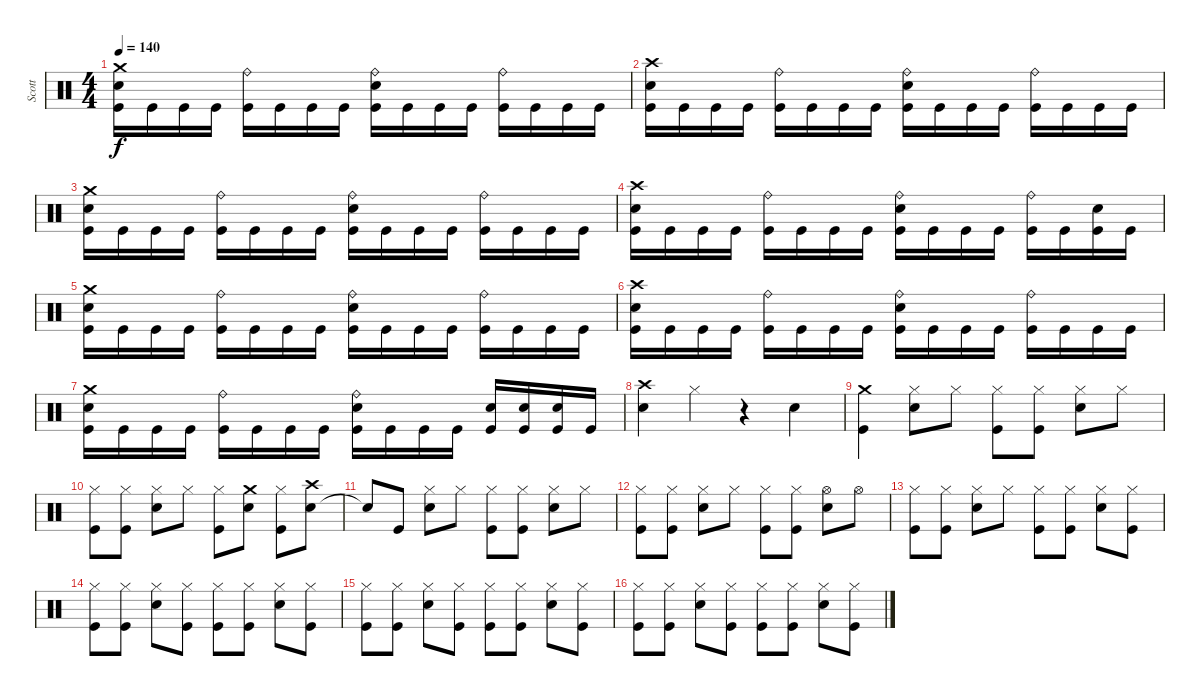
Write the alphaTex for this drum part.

\track ("Scott" "Scott") {instrument percussion}
\staff {score}
\articulation defaults
\ts (4 4)
\tempo 140
\clef neutral
\ks c
("Kick (hit)" "Snare (hit) 2" "Crash medium (hit)").16{dy f} "Kick (hit)".16 "Kick (hit)".16 "Kick (hit)".16 ("Kick (hit)" "Ride (bell)").16 "Kick (hit)".16 "Kick (hit)".16 "Kick (hit)".16 ("Kick (hit)" "Snare (hit) 2" "Ride (bell)").16 "Kick (hit)".16 "Kick (hit)".16 "Kick (hit)".16 ("Kick (hit)" "Ride (bell)").16 "Kick (hit)".16 "Kick (hit)".16 "Kick (hit)".16 |
("Kick (hit)" "Snare (hit) 2" "Crash high (hit)").16 "Kick (hit)".16 "Kick (hit)".16 "Kick (hit)".16 ("Kick (hit)" "Ride (bell)").16 "Kick (hit)".16 "Kick (hit)".16 "Kick (hit)".16 ("Kick (hit)" "Snare (hit) 2" "Ride (bell)").16 "Kick (hit)".16 "Kick (hit)".16 "Kick (hit)".16 ("Kick (hit)" "Ride (bell)").16 "Kick (hit)".16 "Kick (hit)".16 "Kick (hit)".16 |
("Kick (hit)" "Snare (hit) 2" "Crash medium (hit)").16 "Kick (hit)".16 "Kick (hit)".16 "Kick (hit)".16 ("Kick (hit)" "Ride (bell)").16 "Kick (hit)".16 "Kick (hit)".16 "Kick (hit)".16 ("Kick (hit)" "Snare (hit) 2" "Ride (bell)").16 "Kick (hit)".16 "Kick (hit)".16 "Kick (hit)".16 ("Kick (hit)" "Ride (bell)").16 "Kick (hit)".16 "Kick (hit)".16 "Kick (hit)".16 |
("Kick (hit)" "Snare (hit) 2" "Crash high (hit)").16 "Kick (hit)".16 "Kick (hit)".16 "Kick (hit)".16 ("Kick (hit)" "Ride (bell)").16 "Kick (hit)".16 "Kick (hit)".16 "Kick (hit)".16 ("Kick (hit)" "Snare (hit) 2" "Ride (bell)").16 "Kick (hit)".16 "Kick (hit)".16 "Kick (hit)".16 ("Kick (hit)" "Ride (bell)").16 "Kick (hit)".16 ("Kick (hit)" "Snare (hit) 2").16 "Kick (hit)".16 |
("Kick (hit)" "Snare (hit) 2" "Crash medium (hit)").16 "Kick (hit)".16 "Kick (hit)".16 "Kick (hit)".16 ("Kick (hit)" "Ride (bell)").16 "Kick (hit)".16 "Kick (hit)".16 "Kick (hit)".16 ("Kick (hit)" "Snare (hit) 2" "Ride (bell)").16 "Kick (hit)".16 "Kick (hit)".16 "Kick (hit)".16 ("Kick (hit)" "Ride (bell)").16 "Kick (hit)".16 "Kick (hit)".16 "Kick (hit)".16 |
("Kick (hit)" "Snare (hit) 2" "Crash high (hit)").16 "Kick (hit)".16 "Kick (hit)".16 "Kick (hit)".16 ("Kick (hit)" "Ride (bell)").16 "Kick (hit)".16 "Kick (hit)".16 "Kick (hit)".16 ("Kick (hit)" "Snare (hit) 2" "Ride (bell)").16 "Kick (hit)".16 "Kick (hit)".16 "Kick (hit)".16 ("Kick (hit)" "Ride (bell)").16 "Kick (hit)".16 "Kick (hit)".16 "Kick (hit)".16 |
("Kick (hit)" "Snare (hit) 2" "Crash medium (hit)").16 "Kick (hit)".16 "Kick (hit)".16 "Kick (hit)".16 ("Kick (hit)" "Ride (bell)").16 "Kick (hit)".16 "Kick (hit)".16 "Kick (hit)".16 ("Kick (hit)" "Snare (hit) 2" "Ride (bell)").16 "Kick (hit)".16 "Kick (hit)".16 "Kick (hit)".16 ("Kick (hit)" "Snare (hit) 2").16 ("Kick (hit)" "Snare (hit) 2").16 ("Kick (hit)" "Snare (hit) 2").16 "Kick (hit)".16 |
("Snare (hit) 2" "Crash high (hit)").4 "Hi-Hat (closed)".4 r.4 "Snare (hit) 2".4 |
("Kick (hit)" "Crash medium (hit)").4 ("Snare (hit) 2" "Hi-Hat (closed)").8 "Hi-Hat (closed)".8 ("Kick (hit)" "Hi-Hat (closed)").8 ("Kick (hit)" "Hi-Hat (closed)").8 ("Snare (hit) 2" "Hi-Hat (closed)").8 "Hi-Hat (closed)".8 |
("Kick (hit)" "Hi-Hat (closed)").8 ("Kick (hit)" "Hi-Hat (closed)").8 ("Snare (hit) 2" "Hi-Hat (closed)").8 "Hi-Hat (closed)".8 ("Kick (hit)" "Hi-Hat (closed)").8 ("Snare (hit) 2" "Crash medium (hit)").8 ("Kick (hit)" "Hi-Hat (closed)").8 ("Snare (hit) 2" "Crash high (hit)").8 |
"Snare (hit)"{t}.8 "Kick (hit)".8 ("Snare (hit) 2" "Hi-Hat (closed)").8 "Hi-Hat (closed)".8 ("Kick (hit)" "Hi-Hat (closed)").8 ("Kick (hit)" "Hi-Hat (closed)").8 ("Snare (hit) 2" "Hi-Hat (closed)").8 "Hi-Hat (closed)".8 |
("Kick (hit)" "Hi-Hat (closed)").8 ("Kick (hit)" "Hi-Hat (closed)").8 ("Snare (hit) 2" "Hi-Hat (closed)").8 "Hi-Hat (closed)".8 ("Kick (hit)" "Hi-Hat (closed)").8 ("Kick (hit)" "Hi-Hat (closed)").8 ("Snare (hit) 2" "Hi-Hat (open)").8 "Hi-Hat (open)".8 |
("Kick (hit)" "Hi-Hat (closed)").8 ("Kick (hit)" "Hi-Hat (closed)").8 ("Snare (hit) 2" "Hi-Hat (closed)").8 "Hi-Hat (closed)".8 ("Kick (hit)" "Hi-Hat (closed)").8 ("Kick (hit)" "Hi-Hat (closed)").8 ("Snare (hit) 2" "Hi-Hat (closed)").8 ("Kick (hit)" "Hi-Hat (closed)").8 |
("Kick (hit)" "Hi-Hat (closed)").8 ("Kick (hit)" "Hi-Hat (closed)").8 ("Snare (hit) 2" "Hi-Hat (closed)").8 ("Kick (hit)" "Hi-Hat (closed)").8 ("Kick (hit)" "Hi-Hat (closed)").8 ("Kick (hit)" "Hi-Hat (closed)").8 ("Snare (hit) 2" "Hi-Hat (closed)").8 ("Kick (hit)" "Hi-Hat (closed)").8 |
("Kick (hit)" "Hi-Hat (closed)").8 ("Kick (hit)" "Hi-Hat (closed)").8 ("Snare (hit) 2" "Hi-Hat (closed)").8 ("Kick (hit)" "Hi-Hat (closed)").8 ("Kick (hit)" "Hi-Hat (closed)").8 ("Kick (hit)" "Hi-Hat (closed)").8 ("Snare (hit) 2" "Hi-Hat (closed)").8 ("Kick (hit)" "Hi-Hat (closed)").8 |
("Kick (hit)" "Hi-Hat (closed)").8 ("Kick (hit)" "Hi-Hat (closed)").8 ("Snare (hit) 2" "Hi-Hat (closed)").8 ("Kick (hit)" "Hi-Hat (closed)").8 ("Kick (hit)" "Hi-Hat (closed)").8 ("Kick (hit)" "Hi-Hat (closed)").8 ("Snare (hit) 2" "Hi-Hat (closed)").8 ("Kick (hit)" "Hi-Hat (closed)").8
